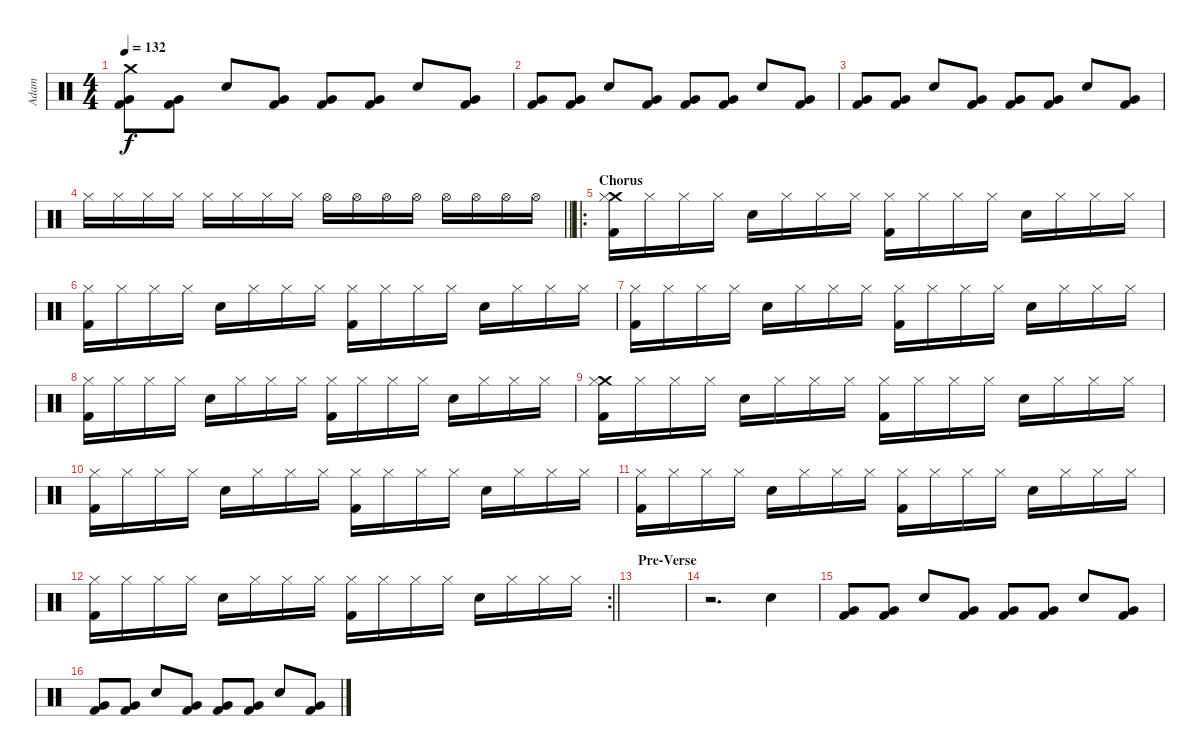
\track ("Adam" "Adam") {instrument percussion}
\staff {score}
\articulation defaults
\ts (4 4)
\tempo 132
\clef neutral
\ks c
("Crash medium (hit)" "Very Low Tom (hit)" "Kick (hit) 2").8{dy f} ("Very Low Tom (hit)" "Kick (hit) 2").8 "Snare (hit) 2".8 ("Very Low Tom (hit)" "Kick (hit) 2").8 ("Very Low Tom (hit)" "Kick (hit) 2").8 ("Very Low Tom (hit)" "Kick (hit) 2").8 "Snare (hit) 2".8 ("Very Low Tom (hit)" "Kick (hit) 2").8 |
("Very Low Tom (hit)" "Kick (hit) 2").8 ("Very Low Tom (hit)" "Kick (hit) 2").8 "Snare (hit) 2".8 ("Very Low Tom (hit)" "Kick (hit) 2").8 ("Very Low Tom (hit)" "Kick (hit) 2").8 ("Very Low Tom (hit)" "Kick (hit) 2").8 "Snare (hit) 2".8 ("Very Low Tom (hit)" "Kick (hit) 2").8 |
("Very Low Tom (hit)" "Kick (hit) 2").8 ("Very Low Tom (hit)" "Kick (hit) 2").8 "Snare (hit) 2".8 ("Very Low Tom (hit)" "Kick (hit) 2").8 ("Very Low Tom (hit)" "Kick (hit) 2").8 ("Very Low Tom (hit)" "Kick (hit) 2").8 "Snare (hit) 2".8 ("Very Low Tom (hit)" "Kick (hit) 2").8 |
\barLineRight lightlight "Hi-Hat (closed)".16 "Hi-Hat (closed)".16 "Hi-Hat (closed)".16 "Hi-Hat (closed)".16 "Hi-Hat (closed)".16 "Hi-Hat (closed)".16 "Hi-Hat (closed)".16 "Hi-Hat (closed)".16 "Hi-Hat (open)".16 "Hi-Hat (open)".16 "Hi-Hat (open)".16 "Hi-Hat (open)".16 "Hi-Hat (open)".16 "Hi-Hat (open)".16 "Hi-Hat (open)".16 "Hi-Hat (open)".16
|
\ro
\section ("" "Chorus")
("Crash medium (hit)" "Hi-Hat (closed)" "Kick (hit) 2").16 "Hi-Hat (closed)".16 "Hi-Hat (closed)".16 "Hi-Hat (closed)".16 "Snare (hit) 2".16 "Hi-Hat (closed)".16 "Hi-Hat (closed)".16 "Hi-Hat (closed)".16 ("Hi-Hat (closed)" "Kick (hit) 2").16 "Hi-Hat (closed)".16 "Hi-Hat (closed)".16 "Hi-Hat (closed)".16 "Snare (hit) 2".16 "Hi-Hat (closed)".16 "Hi-Hat (closed)".16 "Hi-Hat (closed)".16 |
("Hi-Hat (closed)" "Kick (hit) 2").16 "Hi-Hat (closed)".16 "Hi-Hat (closed)".16 "Hi-Hat (closed)".16 "Snare (hit) 2".16 "Hi-Hat (closed)".16 "Hi-Hat (closed)".16 "Hi-Hat (closed)".16 ("Hi-Hat (closed)" "Kick (hit) 2").16 "Hi-Hat (closed)".16 "Hi-Hat (closed)".16 "Hi-Hat (closed)".16 "Snare (hit) 2".16 "Hi-Hat (closed)".16 "Hi-Hat (closed)".16 "Hi-Hat (closed)".16 |
("Hi-Hat (closed)" "Kick (hit) 2").16 "Hi-Hat (closed)".16 "Hi-Hat (closed)".16 "Hi-Hat (closed)".16 "Snare (hit) 2".16 "Hi-Hat (closed)".16 "Hi-Hat (closed)".16 "Hi-Hat (closed)".16 ("Hi-Hat (closed)" "Kick (hit) 2").16 "Hi-Hat (closed)".16 "Hi-Hat (closed)".16 "Hi-Hat (closed)".16 "Snare (hit) 2".16 "Hi-Hat (closed)".16 "Hi-Hat (closed)".16 "Hi-Hat (closed)".16 |
("Hi-Hat (closed)" "Kick (hit) 2").16 "Hi-Hat (closed)".16 "Hi-Hat (closed)".16 "Hi-Hat (closed)".16 "Snare (hit) 2".16 "Hi-Hat (closed)".16 "Hi-Hat (closed)".16 "Hi-Hat (closed)".16 ("Hi-Hat (closed)" "Kick (hit) 2").16 "Hi-Hat (closed)".16 "Hi-Hat (closed)".16 "Hi-Hat (closed)".16 "Snare (hit) 2".16 "Hi-Hat (closed)".16 "Hi-Hat (closed)".16 "Hi-Hat (closed)".16 |
("Crash medium (hit)" "Hi-Hat (closed)" "Kick (hit) 2").16 "Hi-Hat (closed)".16 "Hi-Hat (closed)".16 "Hi-Hat (closed)".16 "Snare (hit) 2".16 "Hi-Hat (closed)".16 "Hi-Hat (closed)".16 "Hi-Hat (closed)".16 ("Hi-Hat (closed)" "Kick (hit) 2").16 "Hi-Hat (closed)".16 "Hi-Hat (closed)".16 "Hi-Hat (closed)".16 "Snare (hit) 2".16 "Hi-Hat (closed)".16 "Hi-Hat (closed)".16 "Hi-Hat (closed)".16 |
("Hi-Hat (closed)" "Kick (hit) 2").16 "Hi-Hat (closed)".16 "Hi-Hat (closed)".16 "Hi-Hat (closed)".16 "Snare (hit) 2".16 "Hi-Hat (closed)".16 "Hi-Hat (closed)".16 "Hi-Hat (closed)".16 ("Hi-Hat (closed)" "Kick (hit) 2").16 "Hi-Hat (closed)".16 "Hi-Hat (closed)".16 "Hi-Hat (closed)".16 "Snare (hit) 2".16 "Hi-Hat (closed)".16 "Hi-Hat (closed)".16 "Hi-Hat (closed)".16 |
("Hi-Hat (closed)" "Kick (hit) 2").16 "Hi-Hat (closed)".16 "Hi-Hat (closed)".16 "Hi-Hat (closed)".16 "Snare (hit) 2".16 "Hi-Hat (closed)".16 "Hi-Hat (closed)".16 "Hi-Hat (closed)".16 ("Hi-Hat (closed)" "Kick (hit) 2").16 "Hi-Hat (closed)".16 "Hi-Hat (closed)".16 "Hi-Hat (closed)".16 "Snare (hit) 2".16 "Hi-Hat (closed)".16 "Hi-Hat (closed)".16 "Hi-Hat (closed)".16 |
\rc 2
\barLineRight lightlight
("Hi-Hat (closed)" "Kick (hit) 2").16 "Hi-Hat (closed)".16 "Hi-Hat (closed)".16 "Hi-Hat (closed)".16 "Snare (hit) 2".16 "Hi-Hat (closed)".16 "Hi-Hat (closed)".16 "Hi-Hat (closed)".16 ("Hi-Hat (closed)" "Kick (hit) 2").16 "Hi-Hat (closed)".16 "Hi-Hat (closed)".16 "Hi-Hat (closed)".16 "Snare (hit) 2".16 "Hi-Hat (closed)".16 "Hi-Hat (closed)".16 "Hi-Hat (closed)".16 |
\section ("" "Pre-Verse")
|
r.2{d} "Snare (hit) 2".4 |
("Very Low Tom (hit)" "Kick (hit) 2").8 ("Very Low Tom (hit)" "Kick (hit) 2").8 "Snare (hit) 2".8 ("Very Low Tom (hit)" "Kick (hit) 2").8 ("Very Low Tom (hit)" "Kick (hit) 2").8 ("Very Low Tom (hit)" "Kick (hit) 2").8 "Snare (hit) 2".8 ("Very Low Tom (hit)" "Kick (hit) 2").8 |
("Very Low Tom (hit)" "Kick (hit) 2").8 ("Very Low Tom (hit)" "Kick (hit) 2").8 "Snare (hit) 2".8 ("Very Low Tom (hit)" "Kick (hit) 2").8 ("Very Low Tom (hit)" "Kick (hit) 2").8 ("Very Low Tom (hit)" "Kick (hit) 2").8 "Snare (hit) 2".8 ("Very Low Tom (hit)" "Kick (hit) 2").8
